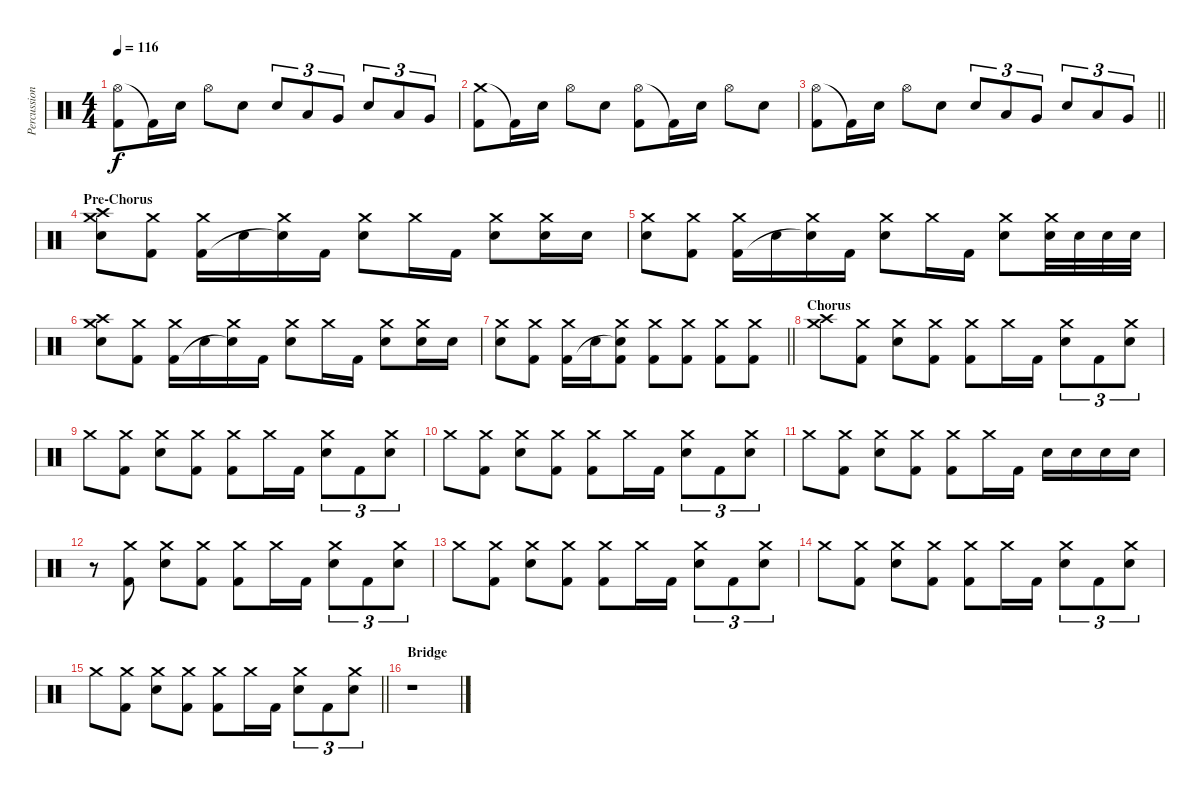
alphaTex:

\track ("Percussion" "Percussion") {instrument percussion}
\staff {score}
\articulation defaults
\ts (4 4)
\tempo 116
\clef neutral
\ks c
("Hi-Hat (open)" "Kick (hit) 2").8{dy f} "Kick (hit) 2"{t}.16 "Electric Snare (hit)".16 "Hi-Hat (open)".8 "Electric Snare (hit)".8 "Electric Snare (hit)".8{tu (3 2)} "Low Tom (hit)".8{tu (3 2)} "Very Low Tom (hit)".8{tu (3 2)} "Electric Snare (hit)".8{tu (3 2)} "Low Tom (hit)".8{tu (3 2)} "Very Low Tom (hit)".8{tu (3 2)} |
("Crash medium (hit)" "Kick (hit) 2").8 "Kick (hit) 2"{t}.16 "Electric Snare (hit)".16 "Hi-Hat (open)".8 "Electric Snare (hit)".8 ("Hi-Hat (open)" "Kick (hit) 2").8 "Kick (hit) 2"{t}.16 "Electric Snare (hit)".16 "Hi-Hat (open)".8 "Electric Snare (hit)".8 |
\barLineRight lightlight
("Hi-Hat (open)" "Kick (hit) 2").8 "Kick (hit) 2"{t}.16 "Electric Snare (hit)".16 "Hi-Hat (open)".8 "Electric Snare (hit)".8 "Electric Snare (hit)".8{tu (3 2)} "Low Tom (hit)".8{tu (3 2)} "Very Low Tom (hit)".8{tu (3 2)} "Electric Snare (hit)".8{tu (3 2)} "Low Tom (hit)".8{tu (3 2)} "Very Low Tom (hit)".8{tu (3 2)} |
\section ("" "Pre-Chorus")
("Crash medium (hit)" "Crash high (hit)" "Electric Snare (hit)").8 ("Crash medium (hit)" "Kick (hit) 2").8 ("Crash medium (hit)" "Kick (hit) 2").16 "Electric Snare (hit)".16 ("Crash medium (hit)" "Electric Snare (hit)"{t}).16 "Kick (hit) 2".16 ("Crash medium (hit)" "Electric Snare (hit)").8 "Crash medium (hit)".16 "Kick (hit) 2".16 ("Crash medium (hit)" "Electric Snare (hit)").8 ("Crash medium (hit)" "Electric Snare (hit)").16 "Electric Snare (hit)".16 |
("Crash medium (hit)" "Electric Snare (hit)").8 ("Crash medium (hit)" "Kick (hit) 2").8 ("Crash medium (hit)" "Kick (hit) 2").16 "Electric Snare (hit)".16 ("Crash medium (hit)" "Electric Snare (hit)"{t}).16 "Kick (hit) 2".16 ("Crash medium (hit)" "Electric Snare (hit)").8 "Crash medium (hit)".16 "Kick (hit) 2".16 ("Crash medium (hit)" "Electric Snare (hit)").8 ("Crash medium (hit)" "Electric Snare (hit)").32 "Electric Snare (hit)".32 "Electric Snare (hit)".32 "Electric Snare (hit)".32 |
("Crash medium (hit)" "Crash high (hit)" "Electric Snare (hit)").8 ("Crash medium (hit)" "Kick (hit) 2").8 ("Crash medium (hit)" "Kick (hit) 2").16 "Electric Snare (hit)".16 ("Crash medium (hit)" "Electric Snare (hit)"{t}).16 "Kick (hit) 2".16 ("Crash medium (hit)" "Electric Snare (hit)").8 "Crash medium (hit)".16 "Kick (hit) 2".16 ("Crash medium (hit)" "Electric Snare (hit)").8 ("Crash medium (hit)" "Electric Snare (hit)").16 "Electric Snare (hit)".16 |
\barLineRight lightlight
("Crash medium (hit)" "Electric Snare (hit)").8 ("Crash medium (hit)" "Kick (hit) 2").8 ("Crash medium (hit)" "Kick (hit) 2").16 "Electric Snare (hit)".16 ("Crash medium (hit)" "Electric Snare (hit)"{t} "Kick (hit) 2").8 ("Crash medium (hit)" "Kick (hit) 2").8 ("Crash medium (hit)" "Kick (hit) 2").8 ("Crash medium (hit)" "Kick (hit) 2").8 ("Crash medium (hit)" "Kick (hit) 2").8 |
\section ("" "Chorus")
("Crash medium (hit)" "Crash high (hit)").8 ("Crash medium (hit)" "Kick (hit) 2").8 ("Crash medium (hit)" "Electric Snare (hit)").8 ("Crash medium (hit)" "Kick (hit) 2").8 ("Crash medium (hit)" "Kick (hit) 2").8 "Crash medium (hit)".16 "Kick (hit) 2".16 ("Crash medium (hit)" "Electric Snare (hit)").8{tu (3 2)} "Kick (hit) 2".8{tu (3 2)} ("Crash medium (hit)" "Electric Snare (hit)").8{tu (3 2)} |
"Crash medium (hit)".8 ("Crash medium (hit)" "Kick (hit) 2").8 ("Crash medium (hit)" "Electric Snare (hit)").8 ("Crash medium (hit)" "Kick (hit) 2").8 ("Crash medium (hit)" "Kick (hit) 2").8 "Crash medium (hit)".16 "Kick (hit) 2".16 ("Crash medium (hit)" "Electric Snare (hit)").8{tu (3 2)} "Kick (hit) 2".8{tu (3 2)} ("Crash medium (hit)" "Electric Snare (hit)").8{tu (3 2)} |
"Crash medium (hit)".8 ("Crash medium (hit)" "Kick (hit) 2").8 ("Crash medium (hit)" "Electric Snare (hit)").8 ("Crash medium (hit)" "Kick (hit) 2").8 ("Crash medium (hit)" "Kick (hit) 2").8 "Crash medium (hit)".16 "Kick (hit) 2".16 ("Crash medium (hit)" "Electric Snare (hit)").8{tu (3 2)} "Kick (hit) 2".8{tu (3 2)} ("Crash medium (hit)" "Electric Snare (hit)").8{tu (3 2)} |
"Crash medium (hit)".8 ("Crash medium (hit)" "Kick (hit) 2").8 ("Crash medium (hit)" "Electric Snare (hit)").8 ("Crash medium (hit)" "Kick (hit) 2").8 ("Crash medium (hit)" "Kick (hit) 2").8 "Crash medium (hit)".16 "Kick (hit) 2".16 "Electric Snare (hit)".16 "Electric Snare (hit)".16 "Electric Snare (hit)".16 "Electric Snare (hit)".16 |
r.8 ("Crash medium (hit)" "Kick (hit) 2").8 ("Crash medium (hit)" "Electric Snare (hit)").8 ("Crash medium (hit)" "Kick (hit) 2").8 ("Crash medium (hit)" "Kick (hit) 2").8 "Crash medium (hit)".16 "Kick (hit) 2".16 ("Crash medium (hit)" "Electric Snare (hit)").8{tu (3 2)} "Kick (hit) 2".8{tu (3 2)} ("Crash medium (hit)" "Electric Snare (hit)").8{tu (3 2)} |
"Crash medium (hit)".8 ("Crash medium (hit)" "Kick (hit) 2").8 ("Crash medium (hit)" "Electric Snare (hit)").8 ("Crash medium (hit)" "Kick (hit) 2").8 ("Crash medium (hit)" "Kick (hit) 2").8 "Crash medium (hit)".16 "Kick (hit) 2".16 ("Crash medium (hit)" "Electric Snare (hit)").8{tu (3 2)} "Kick (hit) 2".8{tu (3 2)} ("Crash medium (hit)" "Electric Snare (hit)").8{tu (3 2)} |
"Crash medium (hit)".8 ("Crash medium (hit)" "Kick (hit) 2").8 ("Crash medium (hit)" "Electric Snare (hit)").8 ("Crash medium (hit)" "Kick (hit) 2").8 ("Crash medium (hit)" "Kick (hit) 2").8 "Crash medium (hit)".16 "Kick (hit) 2".16 ("Crash medium (hit)" "Electric Snare (hit)").8{tu (3 2)} "Kick (hit) 2".8{tu (3 2)} ("Crash medium (hit)" "Electric Snare (hit)").8{tu (3 2)} |
\barLineRight lightlight "Crash medium (hit)".8
("Crash medium (hit)" "Kick (hit) 2").8 ("Crash medium (hit)" "Electric Snare (hit)").8 ("Crash medium (hit)" "Kick (hit) 2").8 ("Crash medium (hit)" "Kick (hit) 2").8 "Crash medium (hit)".16 "Kick (hit) 2".16 ("Crash medium (hit)" "Electric Snare (hit)").8{tu (3 2)} "Kick (hit) 2".8{tu (3 2)} ("Crash medium (hit)" "Electric Snare (hit)").8{tu (3 2)} |
\section ("" "Bridge")
r.1
